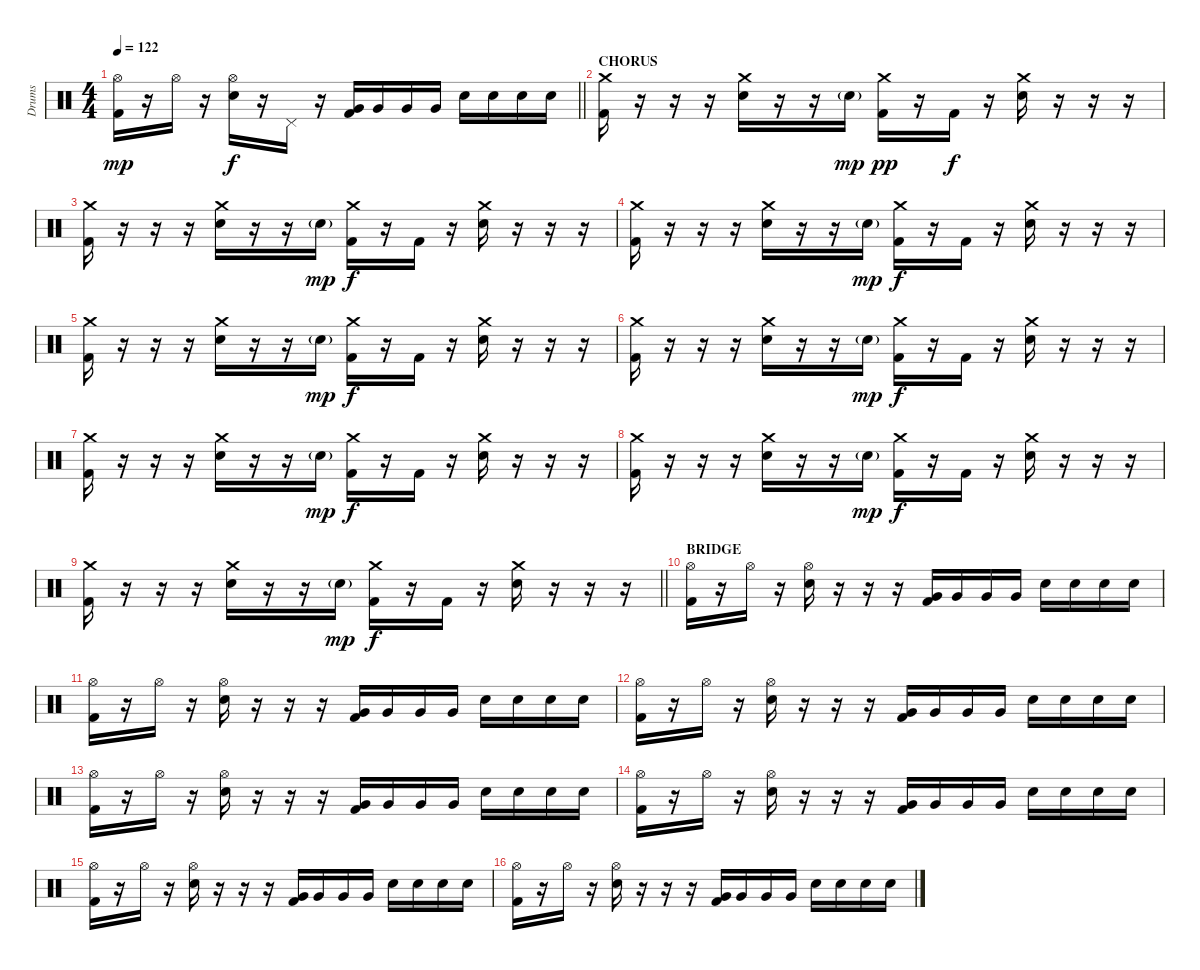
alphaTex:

\track ("Drums" "Drums") {instrument percussion}
\staff {score}
\articulation defaults
\ts (4 4)
\tempo 122
\clef neutral
\barLineRight lightlight
\ks c
("Hi-Hat (open)" "Kick (hit) 2").16{dy mp} r.16 "Hi-Hat (open)".16 r.16 ("Hi-Hat (open)" "Electric Snare (hit)").16{dy f} r.16 "Pedal Hi-Hat (hit)".16 r.16 ("Very Low Tom (hit)" "Kick (hit) 2").16 "Very Low Tom (hit)".16 "Very Low Tom (hit)".16 "Very Low Tom (hit)".16 "Electric Snare (hit)".16 "Electric Snare (hit)".16 "Electric Snare (hit)".16 "Electric Snare (hit)".16 |
\section ("" "CHORUS")
("Crash medium (hit)" "Kick (hit) 2").16 r.16 r.16 r.16 ("Crash medium (hit)" "Electric Snare (hit)").16 r.16 r.16 "Electric Snare (hit)"{g}.16{dy mp} ("Crash medium (hit)" "Kick (hit) 2").16{dy pp} r.16 "Kick (hit) 2".16{dy f} r.16 ("Crash medium (hit)" "Electric Snare (hit)").16 r.16 r.16 r.16 |
("Crash medium (hit)" "Kick (hit) 2").16 r.16 r.16 r.16 ("Crash medium (hit)" "Electric Snare (hit)").16 r.16 r.16 "Electric Snare (hit)"{g}.16{dy mp} ("Crash medium (hit)" "Kick (hit) 2").16{dy f} r.16 "Kick (hit) 2".16 r.16 ("Crash medium (hit)" "Electric Snare (hit)").16 r.16 r.16 r.16 |
("Crash medium (hit)" "Kick (hit) 2").16 r.16 r.16 r.16 ("Crash medium (hit)" "Electric Snare (hit)").16 r.16 r.16 "Electric Snare (hit)"{g}.16{dy mp} ("Crash medium (hit)" "Kick (hit) 2").16{dy f} r.16 "Kick (hit) 2".16 r.16 ("Crash medium (hit)" "Electric Snare (hit)").16 r.16 r.16 r.16 |
("Crash medium (hit)" "Kick (hit) 2").16 r.16 r.16 r.16 ("Crash medium (hit)" "Electric Snare (hit)").16 r.16 r.16 "Electric Snare (hit)"{g}.16{dy mp} ("Crash medium (hit)" "Kick (hit) 2").16{dy f} r.16 "Kick (hit) 2".16 r.16 ("Crash medium (hit)" "Electric Snare (hit)").16 r.16 r.16 r.16 |
("Crash medium (hit)" "Kick (hit) 2").16 r.16 r.16 r.16 ("Crash medium (hit)" "Electric Snare (hit)").16 r.16 r.16 "Electric Snare (hit)"{g}.16{dy mp} ("Crash medium (hit)" "Kick (hit) 2").16{dy f} r.16 "Kick (hit) 2".16 r.16 ("Crash medium (hit)" "Electric Snare (hit)").16 r.16 r.16 r.16 |
("Crash medium (hit)" "Kick (hit) 2").16 r.16 r.16 r.16 ("Crash medium (hit)" "Electric Snare (hit)").16 r.16 r.16 "Electric Snare (hit)"{g}.16{dy mp} ("Crash medium (hit)" "Kick (hit) 2").16{dy f} r.16 "Kick (hit) 2".16 r.16 ("Crash medium (hit)" "Electric Snare (hit)").16 r.16 r.16 r.16 |
("Crash medium (hit)" "Kick (hit) 2").16 r.16 r.16 r.16 ("Crash medium (hit)" "Electric Snare (hit)").16 r.16 r.16 "Electric Snare (hit)"{g}.16{dy mp} ("Crash medium (hit)" "Kick (hit) 2").16{dy f} r.16 "Kick (hit) 2".16 r.16 ("Crash medium (hit)" "Electric Snare (hit)").16 r.16 r.16 r.16 |
\barLineRight lightlight
("Crash medium (hit)" "Kick (hit) 2").16 r.16 r.16 r.16 ("Crash medium (hit)" "Electric Snare (hit)").16 r.16 r.16 "Electric Snare (hit)"{g}.16{dy mp} ("Crash medium (hit)" "Kick (hit) 2").16{dy f} r.16 "Kick (hit) 2".16 r.16 ("Crash medium (hit)" "Electric Snare (hit)").16 r.16 r.16 r.16 |
\section ("" "BRIDGE")
("Hi-Hat (open)" "Kick (hit) 2").16 r.16 "Hi-Hat (open)".16 r.16 ("Hi-Hat (open)" "Electric Snare (hit)").16 r.16 r.16 r.16 ("Very Low Tom (hit)" "Kick (hit) 2").16 "Very Low Tom (hit)".16 "Very Low Tom (hit)".16 "Very Low Tom (hit)".16 "Electric Snare (hit)".16 "Electric Snare (hit)".16 "Electric Snare (hit)".16 "Electric Snare (hit)".16 |
("Hi-Hat (open)" "Kick (hit) 2").16 r.16 "Hi-Hat (open)".16 r.16 ("Hi-Hat (open)" "Electric Snare (hit)").16 r.16 r.16 r.16 ("Very Low Tom (hit)" "Kick (hit) 2").16 "Very Low Tom (hit)".16 "Very Low Tom (hit)".16 "Very Low Tom (hit)".16 "Electric Snare (hit)".16 "Electric Snare (hit)".16 "Electric Snare (hit)".16 "Electric Snare (hit)".16 |
("Hi-Hat (open)" "Kick (hit) 2").16 r.16 "Hi-Hat (open)".16 r.16 ("Hi-Hat (open)" "Electric Snare (hit)").16 r.16 r.16 r.16 ("Very Low Tom (hit)" "Kick (hit) 2").16 "Very Low Tom (hit)".16 "Very Low Tom (hit)".16 "Very Low Tom (hit)".16 "Electric Snare (hit)".16 "Electric Snare (hit)".16 "Electric Snare (hit)".16 "Electric Snare (hit)".16 |
("Hi-Hat (open)" "Kick (hit) 2").16 r.16 "Hi-Hat (open)".16 r.16 ("Hi-Hat (open)" "Electric Snare (hit)").16 r.16 r.16 r.16 ("Very Low Tom (hit)" "Kick (hit) 2").16 "Very Low Tom (hit)".16 "Very Low Tom (hit)".16 "Very Low Tom (hit)".16 "Electric Snare (hit)".16 "Electric Snare (hit)".16 "Electric Snare (hit)".16 "Electric Snare (hit)".16 |
("Hi-Hat (open)" "Kick (hit) 2").16 r.16 "Hi-Hat (open)".16 r.16 ("Hi-Hat (open)" "Electric Snare (hit)").16 r.16 r.16 r.16 ("Very Low Tom (hit)" "Kick (hit) 2").16 "Very Low Tom (hit)".16 "Very Low Tom (hit)".16 "Very Low Tom (hit)".16 "Electric Snare (hit)".16 "Electric Snare (hit)".16 "Electric Snare (hit)".16 "Electric Snare (hit)".16 |
("Hi-Hat (open)" "Kick (hit) 2").16 r.16 "Hi-Hat (open)".16 r.16 ("Hi-Hat (open)" "Electric Snare (hit)").16 r.16 r.16 r.16 ("Very Low Tom (hit)" "Kick (hit) 2").16 "Very Low Tom (hit)".16 "Very Low Tom (hit)".16 "Very Low Tom (hit)".16 "Electric Snare (hit)".16 "Electric Snare (hit)".16 "Electric Snare (hit)".16 "Electric Snare (hit)".16 |
("Hi-Hat (open)" "Kick (hit) 2").16 r.16 "Hi-Hat (open)".16 r.16 ("Hi-Hat (open)" "Electric Snare (hit)").16 r.16 r.16 r.16 ("Very Low Tom (hit)" "Kick (hit) 2").16 "Very Low Tom (hit)".16 "Very Low Tom (hit)".16 "Very Low Tom (hit)".16 "Electric Snare (hit)".16 "Electric Snare (hit)".16 "Electric Snare (hit)".16 "Electric Snare (hit)".16
